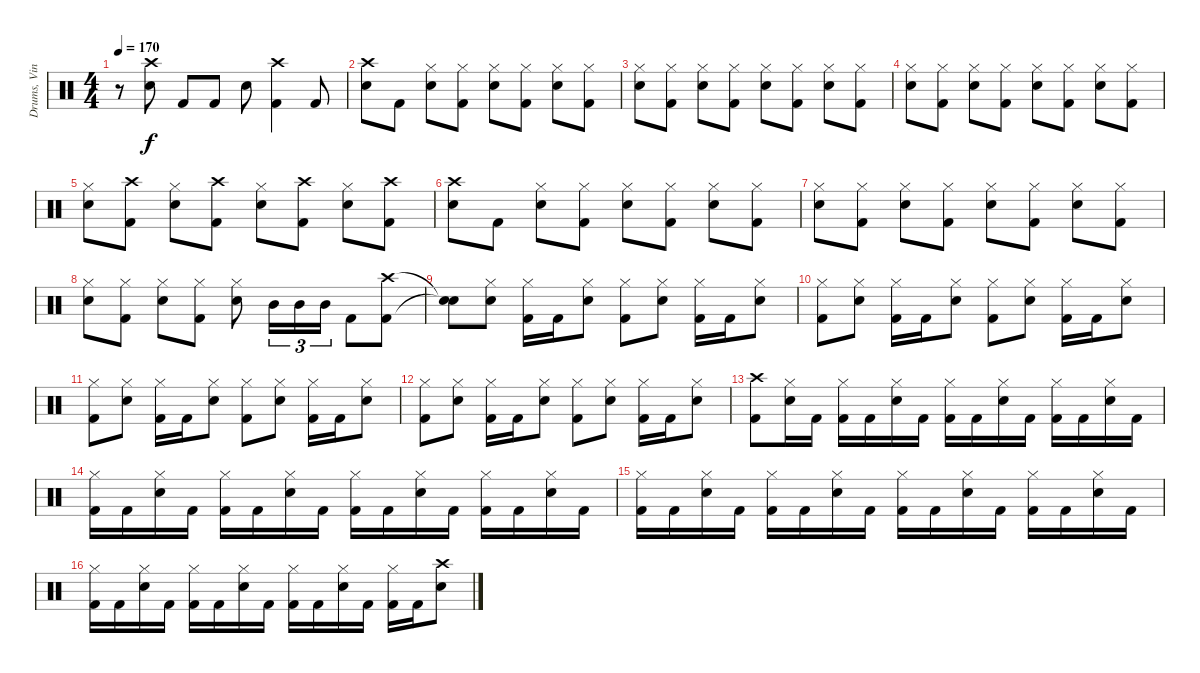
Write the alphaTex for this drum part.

\track ("Drums, Vinnie" "Drums, Vin") {instrument percussion}
\staff {score}
\articulation defaults
\ts (4 4)
\tempo 170
\clef neutral
\ks c
r.8{dy f} ("Crash high (hit)" "Electric Snare (hit)").8 "Kick (hit) 2".8 "Kick (hit) 2".8 "Electric Snare (hit)".8 ("Crash high (hit)" "Kick (hit) 2").4 "Kick (hit) 2".8 |
("Crash high (hit)" "Electric Snare (hit)").8 "Kick (hit) 2".8 ("Hi-Hat (closed)" "Electric Snare (hit)").8 ("Hi-Hat (closed)" "Kick (hit) 2").8 ("Hi-Hat (closed)" "Electric Snare (hit)").8 ("Hi-Hat (closed)" "Kick (hit) 2").8 ("Hi-Hat (closed)" "Electric Snare (hit)").8 ("Hi-Hat (closed)" "Kick (hit) 2").8 |
("Hi-Hat (closed)" "Electric Snare (hit)").8 ("Hi-Hat (closed)" "Kick (hit) 2").8 ("Hi-Hat (closed)" "Electric Snare (hit)").8 ("Hi-Hat (closed)" "Kick (hit) 2").8 ("Hi-Hat (closed)" "Electric Snare (hit)").8 ("Hi-Hat (closed)" "Kick (hit) 2").8 ("Hi-Hat (closed)" "Electric Snare (hit)").8 ("Hi-Hat (closed)" "Kick (hit) 2").8 |
("Hi-Hat (closed)" "Electric Snare (hit)").8 ("Hi-Hat (closed)" "Kick (hit) 2").8 ("Hi-Hat (closed)" "Electric Snare (hit)").8 ("Hi-Hat (closed)" "Kick (hit) 2").8 ("Hi-Hat (closed)" "Electric Snare (hit)").8 ("Hi-Hat (closed)" "Kick (hit) 2").8 ("Hi-Hat (closed)" "Electric Snare (hit)").8 ("Hi-Hat (closed)" "Kick (hit) 2").8 |
("Hi-Hat (closed)" "Electric Snare (hit)").8 ("Crash high (hit)" "Kick (hit) 2").8 ("Hi-Hat (closed)" "Electric Snare (hit)").8 ("Crash high (hit)" "Kick (hit) 2").8 ("Hi-Hat (closed)" "Electric Snare (hit)").8 ("Crash high (hit)" "Kick (hit) 2").8 ("Hi-Hat (closed)" "Electric Snare (hit)").8 ("Crash high (hit)" "Kick (hit) 2").8 |
("Crash high (hit)" "Electric Snare (hit)").8 "Kick (hit) 2".8 ("Hi-Hat (closed)" "Electric Snare (hit)").8 ("Hi-Hat (closed)" "Kick (hit) 2").8 ("Hi-Hat (closed)" "Electric Snare (hit)").8 ("Hi-Hat (closed)" "Kick (hit) 2").8 ("Hi-Hat (closed)" "Electric Snare (hit)").8 ("Hi-Hat (closed)" "Kick (hit) 2").8 |
("Hi-Hat (closed)" "Electric Snare (hit)").8 ("Hi-Hat (closed)" "Kick (hit) 2").8 ("Hi-Hat (closed)" "Electric Snare (hit)").8 ("Hi-Hat (closed)" "Kick (hit) 2").8 ("Hi-Hat (closed)" "Electric Snare (hit)").8 ("Hi-Hat (closed)" "Kick (hit) 2").8 ("Hi-Hat (closed)" "Electric Snare (hit)").8 ("Hi-Hat (closed)" "Kick (hit) 2").8 |
("Hi-Hat (closed)" "Electric Snare (hit)").8 ("Hi-Hat (closed)" "Kick (hit) 2").8 ("Hi-Hat (closed)" "Electric Snare (hit)").8 ("Hi-Hat (closed)" "Kick (hit) 2").8 ("Hi-Hat (closed)" "Electric Snare (hit)").8 "Mid Tom (hit)".16{tu (3 2)} "Mid Tom (hit)".16{tu (3 2)} "Mid Tom (hit)".16{tu (3 2)} "Kick (hit) 2".8 ("Crash high (hit)" "Kick (hit) 2").8 |
("Snare (hit)"{t} "Snare (hit)"{t}).8 ("Hi-Hat (closed)" "Electric Snare (hit)").8 ("Hi-Hat (closed)" "Kick (hit) 2").16 "Kick (hit) 2".16 ("Hi-Hat (closed)" "Electric Snare (hit)").8 ("Hi-Hat (closed)" "Kick (hit) 2").8 ("Hi-Hat (closed)" "Electric Snare (hit)").8 ("Hi-Hat (closed)" "Kick (hit) 2").16 "Kick (hit) 2".16 ("Hi-Hat (closed)" "Electric Snare (hit)").8 |
("Hi-Hat (closed)" "Kick (hit) 2").8 ("Hi-Hat (closed)" "Electric Snare (hit)").8 ("Hi-Hat (closed)" "Kick (hit) 2").16 "Kick (hit) 2".16 ("Hi-Hat (closed)" "Electric Snare (hit)").8 ("Hi-Hat (closed)" "Kick (hit) 2").8 ("Hi-Hat (closed)" "Electric Snare (hit)").8 ("Hi-Hat (closed)" "Kick (hit) 2").16 "Kick (hit) 2".16 ("Hi-Hat (closed)" "Electric Snare (hit)").8 |
("Hi-Hat (closed)" "Kick (hit) 2").8 ("Hi-Hat (closed)" "Electric Snare (hit)").8 ("Hi-Hat (closed)" "Kick (hit) 2").16 "Kick (hit) 2".16 ("Hi-Hat (closed)" "Electric Snare (hit)").8 ("Hi-Hat (closed)" "Kick (hit) 2").8 ("Hi-Hat (closed)" "Electric Snare (hit)").8 ("Hi-Hat (closed)" "Kick (hit) 2").16 "Kick (hit) 2".16 ("Hi-Hat (closed)" "Electric Snare (hit)").8 |
("Hi-Hat (closed)" "Kick (hit) 2").8 ("Hi-Hat (closed)" "Electric Snare (hit)").8 ("Hi-Hat (closed)" "Kick (hit) 2").16 "Kick (hit) 2".16 ("Hi-Hat (closed)" "Electric Snare (hit)").8 ("Hi-Hat (closed)" "Kick (hit) 2").8 ("Hi-Hat (closed)" "Electric Snare (hit)").8 ("Hi-Hat (closed)" "Kick (hit) 2").16 "Kick (hit) 2".16 ("Hi-Hat (closed)" "Electric Snare (hit)").8 |
("Crash high (hit)" "Kick (hit) 2").8 ("Hi-Hat (closed)" "Electric Snare (hit)").16 "Kick (hit) 2".16 ("Hi-Hat (closed)" "Kick (hit) 2").16 "Kick (hit) 2".16 ("Hi-Hat (closed)" "Electric Snare (hit)").16 "Kick (hit) 2".16 ("Hi-Hat (closed)" "Kick (hit) 2").16 "Kick (hit) 2".16 ("Hi-Hat (closed)" "Electric Snare (hit)").16 "Kick (hit) 2".16 ("Hi-Hat (closed)" "Kick (hit) 2").16 "Kick (hit) 2".16 ("Hi-Hat (closed)" "Electric Snare (hit)").16 "Kick (hit) 2".16 |
("Hi-Hat (closed)" "Kick (hit) 2").16 "Kick (hit) 2".16 ("Hi-Hat (closed)" "Electric Snare (hit)").16 "Kick (hit) 2".16 ("Hi-Hat (closed)" "Kick (hit) 2").16 "Kick (hit) 2".16 ("Hi-Hat (closed)" "Electric Snare (hit)").16 "Kick (hit) 2".16 ("Hi-Hat (closed)" "Kick (hit) 2").16 "Kick (hit) 2".16 ("Hi-Hat (closed)" "Electric Snare (hit)").16 "Kick (hit) 2".16 ("Hi-Hat (closed)" "Kick (hit) 2").16 "Kick (hit) 2".16 ("Hi-Hat (closed)" "Electric Snare (hit)").16 "Kick (hit) 2".16 |
("Hi-Hat (closed)" "Kick (hit) 2").16 "Kick (hit) 2".16 ("Hi-Hat (closed)" "Electric Snare (hit)").16 "Kick (hit) 2".16 ("Hi-Hat (closed)" "Kick (hit) 2").16 "Kick (hit) 2".16 ("Hi-Hat (closed)" "Electric Snare (hit)").16 "Kick (hit) 2".16 ("Hi-Hat (closed)" "Kick (hit) 2").16 "Kick (hit) 2".16 ("Hi-Hat (closed)" "Electric Snare (hit)").16 "Kick (hit) 2".16 ("Hi-Hat (closed)" "Kick (hit) 2").16 "Kick (hit) 2".16 ("Hi-Hat (closed)" "Electric Snare (hit)").16 "Kick (hit) 2".16 |
("Hi-Hat (closed)" "Kick (hit) 2").16 "Kick (hit) 2".16 ("Hi-Hat (closed)" "Electric Snare (hit)").16 "Kick (hit) 2".16 ("Hi-Hat (closed)" "Kick (hit) 2").16 "Kick (hit) 2".16 ("Hi-Hat (closed)" "Electric Snare (hit)").16 "Kick (hit) 2".16 ("Hi-Hat (closed)" "Kick (hit) 2").16 "Kick (hit) 2".16 ("Hi-Hat (closed)" "Electric Snare (hit)").16 "Kick (hit) 2".16 ("Hi-Hat (closed)" "Kick (hit) 2").16 "Kick (hit) 2".16 ("Crash high (hit)" "Electric Snare (hit)").8
